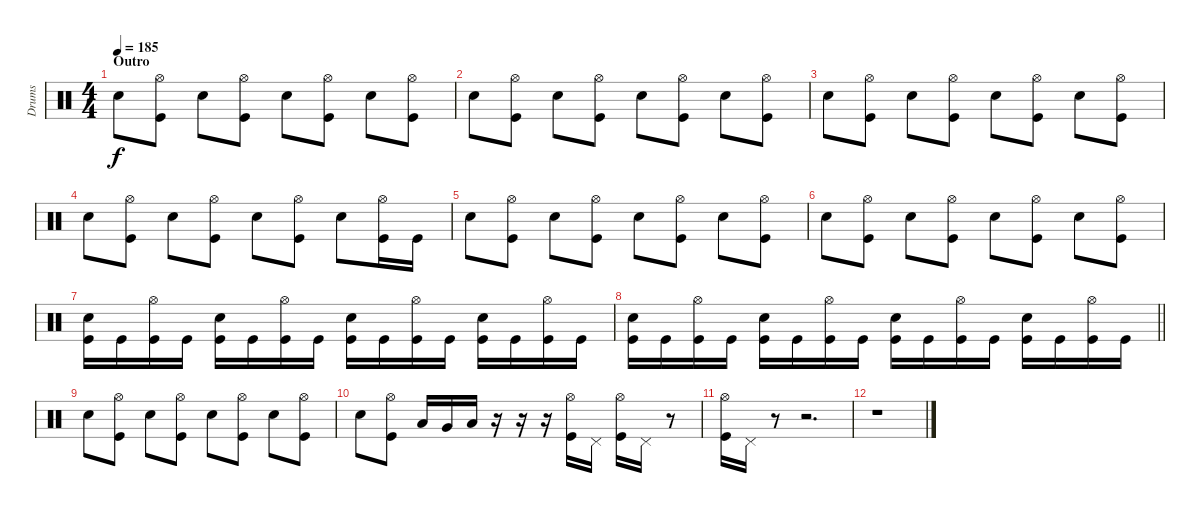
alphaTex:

\track ("Drums" "Drums") {instrument percussion}
\staff {score}
\articulation defaults
\ts (4 4)
\section ("" "Outro")
\tempo 185
\clef neutral
\ks c "Electric Snare (hit)".8{dy f}
("Hi-Hat (open)" "Kick (hit)").8 "Electric Snare (hit)".8 ("Hi-Hat (open)" "Kick (hit)").8 "Electric Snare (hit)".8 ("Hi-Hat (open)" "Kick (hit)").8 "Electric Snare (hit)".8 ("Hi-Hat (open)" "Kick (hit)").8 |
"Electric Snare (hit)".8 ("Hi-Hat (open)" "Kick (hit)").8 "Electric Snare (hit)".8 ("Hi-Hat (open)" "Kick (hit)").8 "Electric Snare (hit)".8 ("Hi-Hat (open)" "Kick (hit)").8 "Electric Snare (hit)".8 ("Hi-Hat (open)" "Kick (hit)").8 |
"Electric Snare (hit)".8 ("Hi-Hat (open)" "Kick (hit)").8 "Electric Snare (hit)".8 ("Hi-Hat (open)" "Kick (hit)").8 "Electric Snare (hit)".8 ("Hi-Hat (open)" "Kick (hit)").8 "Electric Snare (hit)".8 ("Hi-Hat (open)" "Kick (hit)").8 |
"Electric Snare (hit)".8 ("Hi-Hat (open)" "Kick (hit)").8 "Electric Snare (hit)".8 ("Hi-Hat (open)" "Kick (hit)").8 "Electric Snare (hit)".8 ("Hi-Hat (open)" "Kick (hit)").8 "Electric Snare (hit)".8 ("Hi-Hat (open)" "Kick (hit)").16 "Kick (hit)".16 |
"Electric Snare (hit)".8 ("Hi-Hat (open)" "Kick (hit)").8 "Electric Snare (hit)".8 ("Hi-Hat (open)" "Kick (hit)").8 "Electric Snare (hit)".8 ("Hi-Hat (open)" "Kick (hit)").8 "Electric Snare (hit)".8 ("Hi-Hat (open)" "Kick (hit)").8 |
"Electric Snare (hit)".8 ("Hi-Hat (open)" "Kick (hit)").8 "Electric Snare (hit)".8 ("Hi-Hat (open)" "Kick (hit)").8 "Electric Snare (hit)".8 ("Hi-Hat (open)" "Kick (hit)").8 "Electric Snare (hit)".8 ("Hi-Hat (open)" "Kick (hit)").8 |
("Electric Snare (hit)" "Kick (hit)").16 "Kick (hit)".16 ("Hi-Hat (open)" "Kick (hit)").16 "Kick (hit)".16 ("Electric Snare (hit)" "Kick (hit)").16 "Kick (hit)".16 ("Hi-Hat (open)" "Kick (hit)").16 "Kick (hit)".16 ("Electric Snare (hit)" "Kick (hit)").16 "Kick (hit)".16 ("Hi-Hat (open)" "Kick (hit)").16 "Kick (hit)".16 ("Electric Snare (hit)" "Kick (hit)").16 "Kick (hit)".16 ("Hi-Hat (open)" "Kick (hit)").16 "Kick (hit)".16 |
\barLineRight lightlight
("Electric Snare (hit)" "Kick (hit)").16 "Kick (hit)".16 ("Hi-Hat (open)" "Kick (hit)").16 "Kick (hit)".16 ("Electric Snare (hit)" "Kick (hit)").16 "Kick (hit)".16 ("Hi-Hat (open)" "Kick (hit)").16 "Kick (hit)".16 ("Electric Snare (hit)" "Kick (hit)").16 "Kick (hit)".16 ("Hi-Hat (open)" "Kick (hit)").16 "Kick (hit)".16 ("Electric Snare (hit)" "Kick (hit)").16 "Kick (hit)".16 ("Hi-Hat (open)" "Kick (hit)").16 "Kick (hit)".16 |
"Electric Snare (hit)".8 ("Hi-Hat (open)" "Kick (hit)").8 "Electric Snare (hit)".8 ("Hi-Hat (open)" "Kick (hit)").8 "Electric Snare (hit)".8 ("Hi-Hat (open)" "Kick (hit)").8 "Electric Snare (hit)".8 ("Hi-Hat (open)" "Kick (hit)").8 |
"Electric Snare (hit)".8 ("Hi-Hat (open)" "Kick (hit)").8 "Low Tom (hit)".16 "Very Low Tom (hit)".16 "Low Floor Tom (hit)".16 r.16 r.16 r.16 ("Hi-Hat (open)" "Kick (hit)").16 "Pedal Hi-Hat (hit)".16 ("Hi-Hat (open)" "Kick (hit)").16 "Pedal Hi-Hat (hit)".16 r.8 |
("Hi-Hat (open)" "Kick (hit)").16 "Pedal Hi-Hat (hit)".16 r.8 r.2{d} |
r.1
